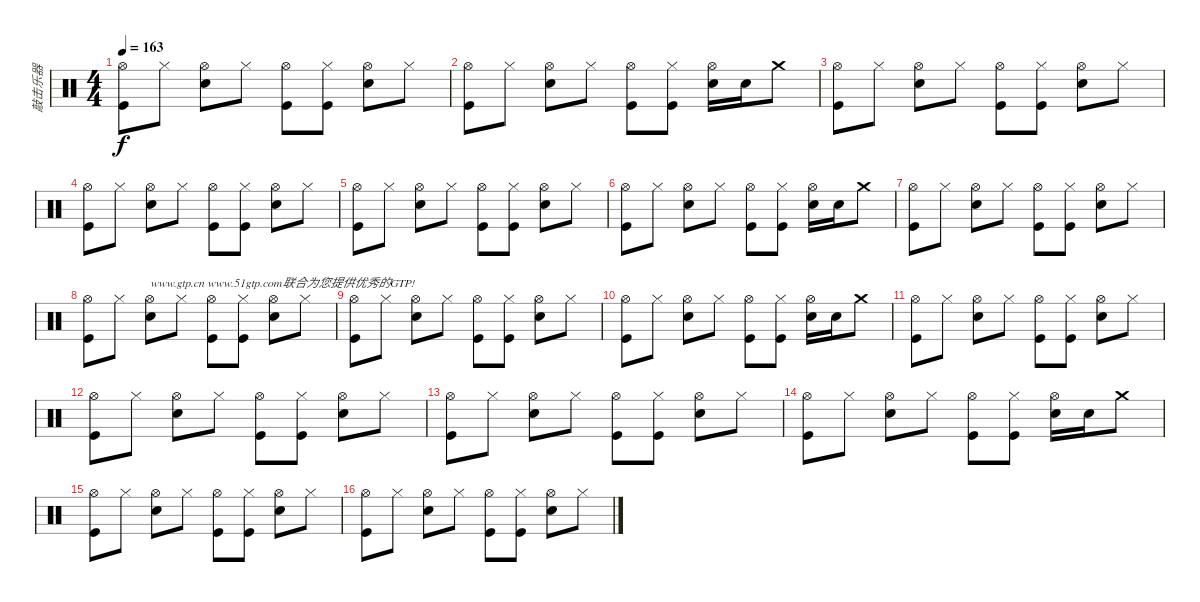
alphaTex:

\track ("敲击乐器" "敲击乐器") {instrument percussion}
\staff {score}
\articulation defaults
\ts (4 4)
\tempo 163
\clef neutral
\ks c
("Hi-Hat (open)" "Kick (hit)").8{dy f} "Hi-Hat (closed)".8 ("Hi-Hat (open)" "Snare (hit) 2").8 "Hi-Hat (closed)".8 ("Hi-Hat (open)" "Kick (hit)").8 ("Hi-Hat (closed)" "Kick (hit)").8 ("Hi-Hat (open)" "Snare (hit) 2").8 "Hi-Hat (closed)".8 |
("Hi-Hat (open)" "Kick (hit)").8 "Hi-Hat (closed)".8 ("Hi-Hat (open)" "Snare (hit) 2").8 "Hi-Hat (closed)".8 ("Hi-Hat (open)" "Kick (hit)").8 ("Hi-Hat (closed)" "Kick (hit)").8 ("Hi-Hat (open)" "Snare (hit) 2").16 "Snare (hit) 2".16 "Crash medium (hit)".8 |
("Hi-Hat (open)" "Kick (hit)").8 "Hi-Hat (closed)".8 ("Hi-Hat (open)" "Snare (hit) 2").8 "Hi-Hat (closed)".8 ("Hi-Hat (open)" "Kick (hit)").8 ("Hi-Hat (closed)" "Kick (hit)").8 ("Hi-Hat (open)" "Snare (hit) 2").8 "Hi-Hat (closed)".8 |
("Hi-Hat (open)" "Kick (hit)").8 "Hi-Hat (closed)".8 ("Hi-Hat (open)" "Snare (hit) 2").8 "Hi-Hat (closed)".8 ("Hi-Hat (open)" "Kick (hit)").8 ("Hi-Hat (closed)" "Kick (hit)").8 ("Hi-Hat (open)" "Snare (hit) 2").8 "Hi-Hat (closed)".8 |
("Hi-Hat (open)" "Kick (hit)").8 "Hi-Hat (closed)".8 ("Hi-Hat (open)" "Snare (hit) 2").8 "Hi-Hat (closed)".8 ("Hi-Hat (open)" "Kick (hit)").8 ("Hi-Hat (closed)" "Kick (hit)").8 ("Hi-Hat (open)" "Snare (hit) 2").8 "Hi-Hat (closed)".8 |
("Hi-Hat (open)" "Kick (hit)").8 "Hi-Hat (closed)".8 ("Hi-Hat (open)" "Snare (hit) 2").8 "Hi-Hat (closed)".8 ("Hi-Hat (open)" "Kick (hit)").8 ("Hi-Hat (closed)" "Kick (hit)").8 ("Hi-Hat (open)" "Snare (hit) 2").16 "Snare (hit) 2".16 "Crash medium (hit)".8 |
("Hi-Hat (open)" "Kick (hit)").8 "Hi-Hat (closed)".8 ("Hi-Hat (open)" "Snare (hit) 2").8 "Hi-Hat (closed)".8 ("Hi-Hat (open)" "Kick (hit)").8 ("Hi-Hat (closed)" "Kick (hit)").8 ("Hi-Hat (open)" "Snare (hit) 2").8 "Hi-Hat (closed)".8 |
("Hi-Hat (open)" "Kick (hit)").8 "Hi-Hat (closed)".8 ("Hi-Hat (open)" "Snare (hit) 2").8{txt "www.gtp.cn www.51gtp.com联合为您提供优秀的GTP!"} "Hi-Hat (closed)".8 ("Hi-Hat (open)" "Kick (hit)").8 ("Hi-Hat (closed)" "Kick (hit)").8 ("Hi-Hat (open)" "Snare (hit) 2").8 "Hi-Hat (closed)".8 |
("Hi-Hat (open)" "Kick (hit)").8 "Hi-Hat (closed)".8 ("Hi-Hat (open)" "Snare (hit) 2").8 "Hi-Hat (closed)".8 ("Hi-Hat (open)" "Kick (hit)").8 ("Hi-Hat (closed)" "Kick (hit)").8 ("Hi-Hat (open)" "Snare (hit) 2").8 "Hi-Hat (closed)".8 |
("Hi-Hat (open)" "Kick (hit)").8 "Hi-Hat (closed)".8 ("Hi-Hat (open)" "Snare (hit) 2").8 "Hi-Hat (closed)".8 ("Hi-Hat (open)" "Kick (hit)").8 ("Hi-Hat (closed)" "Kick (hit)").8 ("Hi-Hat (open)" "Snare (hit) 2").16 "Snare (hit) 2".16 "Crash medium (hit)".8 |
("Hi-Hat (open)" "Kick (hit)").8 "Hi-Hat (closed)".8 ("Hi-Hat (open)" "Snare (hit) 2").8 "Hi-Hat (closed)".8 ("Hi-Hat (open)" "Kick (hit)").8 ("Hi-Hat (closed)" "Kick (hit)").8 ("Hi-Hat (open)" "Snare (hit) 2").8 "Hi-Hat (closed)".8 |
("Hi-Hat (open)" "Kick (hit)").8 "Hi-Hat (closed)".8 ("Hi-Hat (open)" "Snare (hit) 2").8 "Hi-Hat (closed)".8 ("Hi-Hat (open)" "Kick (hit)").8 ("Hi-Hat (closed)" "Kick (hit)").8 ("Hi-Hat (open)" "Snare (hit) 2").8 "Hi-Hat (closed)".8 |
("Hi-Hat (open)" "Kick (hit)").8 "Hi-Hat (closed)".8 ("Hi-Hat (open)" "Snare (hit) 2").8 "Hi-Hat (closed)".8 ("Hi-Hat (open)" "Kick (hit)").8 ("Hi-Hat (closed)" "Kick (hit)").8 ("Hi-Hat (open)" "Snare (hit) 2").8 "Hi-Hat (closed)".8 |
("Hi-Hat (open)" "Kick (hit)").8 "Hi-Hat (closed)".8 ("Hi-Hat (open)" "Snare (hit) 2").8 "Hi-Hat (closed)".8 ("Hi-Hat (open)" "Kick (hit)").8 ("Hi-Hat (closed)" "Kick (hit)").8 ("Hi-Hat (open)" "Snare (hit) 2").16 "Snare (hit) 2".16 "Crash medium (hit)".8 |
("Hi-Hat (open)" "Kick (hit)").8 "Hi-Hat (closed)".8 ("Hi-Hat (open)" "Snare (hit) 2").8 "Hi-Hat (closed)".8 ("Hi-Hat (open)" "Kick (hit)").8 ("Hi-Hat (closed)" "Kick (hit)").8 ("Hi-Hat (open)" "Snare (hit) 2").8 "Hi-Hat (closed)".8 |
("Hi-Hat (open)" "Kick (hit)").8 "Hi-Hat (closed)".8 ("Hi-Hat (open)" "Snare (hit) 2").8 "Hi-Hat (closed)".8 ("Hi-Hat (open)" "Kick (hit)").8 ("Hi-Hat (closed)" "Kick (hit)").8 ("Hi-Hat (open)" "Snare (hit) 2").8 "Hi-Hat (closed)".8
